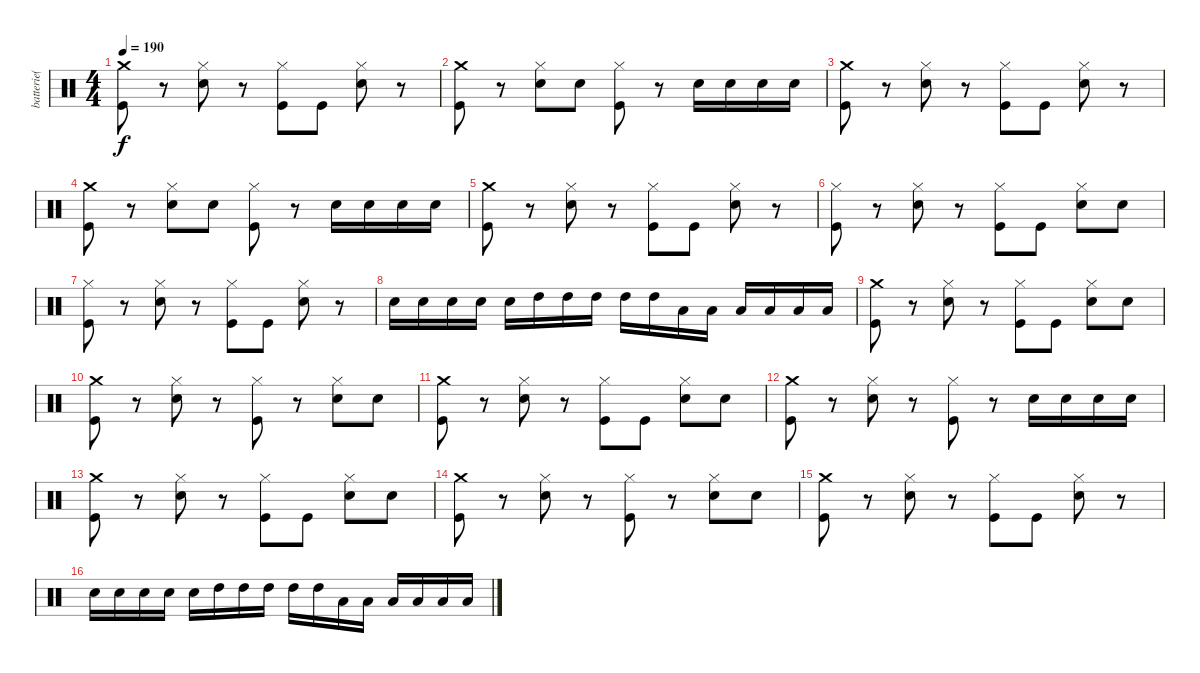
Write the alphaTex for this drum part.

\track ("batterie( Meggers )" "batterie( ") {instrument percussion}
\staff {score}
\articulation defaults
\ts (4 4)
\tempo 190
\clef neutral
\ks c
("Crash medium (hit)" "Kick (hit)").8{dy f} r.8 ("Hi-Hat (closed)" "Snare (hit) 2").8 r.8 ("Hi-Hat (closed)" "Kick (hit)").8 "Kick (hit)".8 ("Hi-Hat (closed)" "Snare (hit) 2").8 r.8 |
("Crash medium (hit)" "Kick (hit)").8 r.8 ("Hi-Hat (closed)" "Snare (hit) 2").8 "Snare (hit) 2".8 ("Hi-Hat (closed)" "Kick (hit)").8 r.8 "Snare (hit) 2".16 "Snare (hit) 2".16 "Snare (hit) 2".16 "Snare (hit) 2".16 |
("Crash medium (hit)" "Kick (hit)").8 r.8 ("Hi-Hat (closed)" "Snare (hit) 2").8 r.8 ("Hi-Hat (closed)" "Kick (hit)").8 "Kick (hit)".8 ("Hi-Hat (closed)" "Snare (hit) 2").8 r.8 |
("Crash medium (hit)" "Kick (hit)").8 r.8 ("Hi-Hat (closed)" "Snare (hit) 2").8 "Snare (hit) 2".8 ("Hi-Hat (closed)" "Kick (hit)").8 r.8 "Snare (hit) 2".16 "Snare (hit) 2".16 "Snare (hit) 2".16 "Snare (hit) 2".16 |
("Crash medium (hit)" "Kick (hit)").8 r.8 ("Hi-Hat (closed)" "Snare (hit) 2").8 r.8 ("Hi-Hat (closed)" "Kick (hit)").8 "Kick (hit)".8 ("Hi-Hat (closed)" "Snare (hit) 2").8 r.8 |
("Hi-Hat (closed)" "Kick (hit)").8 r.8 ("Hi-Hat (closed)" "Snare (hit) 2").8 r.8 ("Hi-Hat (closed)" "Kick (hit)").8 "Kick (hit)".8 ("Hi-Hat (closed)" "Snare (hit) 2").8 "Snare (hit) 2".8 |
("Hi-Hat (closed)" "Kick (hit)").8 r.8 ("Hi-Hat (closed)" "Snare (hit) 2").8 r.8 ("Hi-Hat (closed)" "Kick (hit)").8 "Kick (hit)".8 ("Hi-Hat (closed)" "Snare (hit) 2").8 r.8 |
"Snare (hit) 2".16 "Snare (hit) 2".16 "Snare (hit) 2".16 "Snare (hit) 2".16 "Snare (hit) 2".16 "High Tom (hit)".16 "High Tom (hit)".16 "High Tom (hit)".16 "High Tom (hit)".16 "High Tom (hit)".16 "Low Tom (hit)".16 "Low Tom (hit)".16 "Low Tom (hit)".16 "Low Tom (hit)".16 "Low Tom (hit)".16 "Low Tom (hit)".16 |
("Crash medium (hit)" "Kick (hit)").8 r.8 ("Hi-Hat (closed)" "Snare (hit) 2").8 r.8 ("Hi-Hat (closed)" "Kick (hit)").8 "Kick (hit)".8 ("Hi-Hat (closed)" "Snare (hit) 2").8 "Snare (hit) 2".8 |
("Crash medium (hit)" "Kick (hit)").8 r.8 ("Hi-Hat (closed)" "Snare (hit) 2").8 r.8 ("Hi-Hat (closed)" "Kick (hit)").8 r.8 ("Hi-Hat (closed)" "Snare (hit) 2").8 "Snare (hit) 2".8 |
("Crash medium (hit)" "Kick (hit)").8 r.8 ("Hi-Hat (closed)" "Snare (hit) 2").8 r.8 ("Hi-Hat (closed)" "Kick (hit)").8 "Kick (hit)".8 ("Hi-Hat (closed)" "Snare (hit) 2").8 "Snare (hit) 2".8 |
("Crash medium (hit)" "Kick (hit)").8 r.8 ("Hi-Hat (closed)" "Snare (hit) 2").8 r.8 ("Hi-Hat (closed)" "Kick (hit)").8 r.8 "Snare (hit) 2".16 "Snare (hit) 2".16 "Snare (hit) 2".16 "Snare (hit) 2".16 |
("Crash medium (hit)" "Kick (hit)").8 r.8 ("Hi-Hat (closed)" "Snare (hit) 2").8 r.8 ("Hi-Hat (closed)" "Kick (hit)").8 "Kick (hit)".8 ("Hi-Hat (closed)" "Snare (hit) 2").8 "Snare (hit) 2".8 |
("Crash medium (hit)" "Kick (hit)").8 r.8 ("Hi-Hat (closed)" "Snare (hit) 2").8 r.8 ("Hi-Hat (closed)" "Kick (hit)").8 r.8 ("Hi-Hat (closed)" "Snare (hit) 2").8 "Snare (hit) 2".8 |
("Crash medium (hit)" "Kick (hit)").8 r.8 ("Hi-Hat (closed)" "Snare (hit) 2").8 r.8 ("Hi-Hat (closed)" "Kick (hit)").8 "Kick (hit)".8 ("Hi-Hat (closed)" "Snare (hit) 2").8 r.8 |
"Snare (hit) 2".16 "Snare (hit) 2".16 "Snare (hit) 2".16 "Snare (hit) 2".16 "Snare (hit) 2".16 "High Tom (hit)".16 "High Tom (hit)".16 "High Tom (hit)".16 "High Tom (hit)".16 "High Tom (hit)".16 "Low Tom (hit)".16 "Low Tom (hit)".16 "Low Tom (hit)".16 "Low Tom (hit)".16 "Low Tom (hit)".16 "Low Tom (hit)".16
